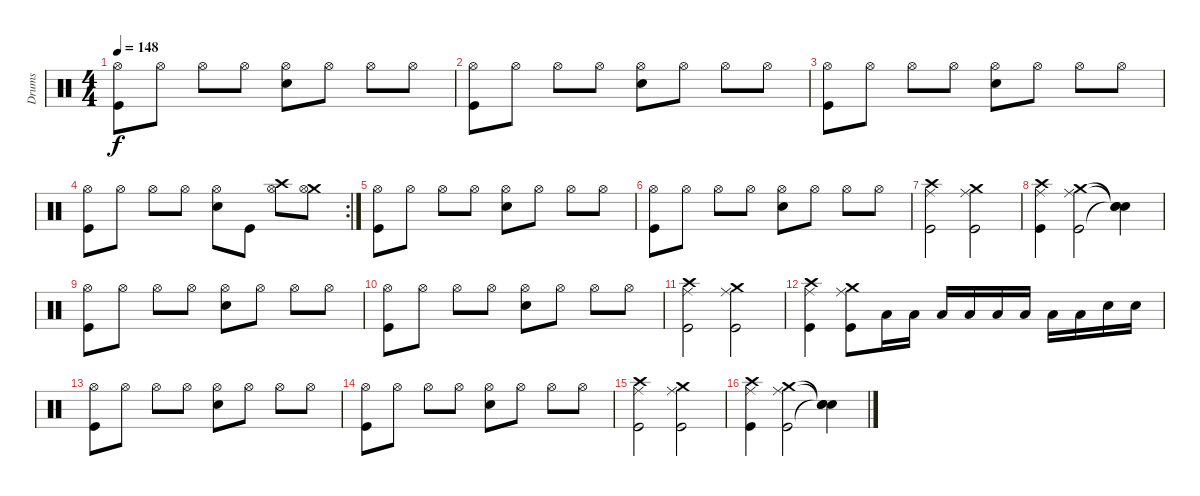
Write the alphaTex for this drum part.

\track ("Drums" "Drums") {instrument percussion}
\staff {score}
\articulation defaults
\ts (4 4)
\tempo 148
\clef neutral
\ks c
("Hi-Hat (open)" "Kick (hit)").8{dy f} "Hi-Hat (open)".8 "Hi-Hat (open)".8 "Hi-Hat (open)".8 ("Snare (hit) 2" "Hi-Hat (open)").8 "Hi-Hat (open)".8 "Hi-Hat (open)".8 "Hi-Hat (open)".8 |
("Hi-Hat (open)" "Kick (hit)").8 "Hi-Hat (open)".8 "Hi-Hat (open)".8 "Hi-Hat (open)".8 ("Snare (hit) 2" "Hi-Hat (open)").8 "Hi-Hat (open)".8 "Hi-Hat (open)".8 "Hi-Hat (open)".8 |
("Hi-Hat (open)" "Kick (hit)").8 "Hi-Hat (open)".8 "Hi-Hat (open)".8 "Hi-Hat (open)".8 ("Snare (hit) 2" "Hi-Hat (open)").8 "Hi-Hat (open)".8 "Hi-Hat (open)".8 "Hi-Hat (open)".8 |
\rc 2
("Hi-Hat (open)" "Kick (hit)").8 "Hi-Hat (open)".8 "Hi-Hat (open)".8 "Hi-Hat (open)".8 ("Snare (hit) 2" "Hi-Hat (open)").8 "Kick (hit)".8 ("Crash high (hit)" "Hi-Hat (open)").8 ("Crash medium (hit)" "Hi-Hat (open)").8 |
("Hi-Hat (open)" "Kick (hit)").8 "Hi-Hat (open)".8 "Hi-Hat (open)".8 "Hi-Hat (open)".8 ("Snare (hit) 2" "Hi-Hat (open)").8 "Hi-Hat (open)".8 "Hi-Hat (open)".8 "Hi-Hat (open)".8 |
("Hi-Hat (open)" "Kick (hit)").8 "Hi-Hat (open)".8 "Hi-Hat (open)".8 "Hi-Hat (open)".8 ("Snare (hit) 2" "Hi-Hat (open)").8 "Hi-Hat (open)".8 "Hi-Hat (open)".8 "Hi-Hat (open)".8 |
("Ride (middle)" "Crash high (hit)" "Kick (hit)").2 ("Ride (middle)" "Crash medium (hit)" "Kick (hit)").2 |
("Ride (middle)" "Crash high (hit)" "Kick (hit)").4 ("Ride (middle)" "Crash medium (hit)" "Kick (hit)").2 ("Snare (hit)"{t} "Snare (hit)"{t} "Snare (hit)"{t}).4 |
("Hi-Hat (open)" "Kick (hit)").8 "Hi-Hat (open)".8 "Hi-Hat (open)".8 "Hi-Hat (open)".8 ("Snare (hit) 2" "Hi-Hat (open)").8 "Hi-Hat (open)".8 "Hi-Hat (open)".8 "Hi-Hat (open)".8 |
("Hi-Hat (open)" "Kick (hit)").8 "Hi-Hat (open)".8 "Hi-Hat (open)".8 "Hi-Hat (open)".8 ("Snare (hit) 2" "Hi-Hat (open)").8 "Hi-Hat (open)".8 "Hi-Hat (open)".8 "Hi-Hat (open)".8 |
("Ride (middle)" "Crash high (hit)" "Kick (hit)").2 ("Ride (middle)" "Crash medium (hit)" "Kick (hit)").2 |
("Ride (middle)" "Crash high (hit)" "Kick (hit)").4 ("Ride (middle)" "Crash medium (hit)" "Kick (hit)").8 "Low Tom (hit)".16 "Low Tom (hit)".16 "Low Tom (hit)".16 "Low Tom (hit)".16 "Low Tom (hit)".16 "Low Tom (hit)".16 "Low Tom (hit)".16 "Low Tom (hit)".16 "Snare (hit) 2".16 "Snare (hit) 2".16 |
("Hi-Hat (open)" "Kick (hit)").8 "Hi-Hat (open)".8 "Hi-Hat (open)".8 "Hi-Hat (open)".8 ("Snare (hit) 2" "Hi-Hat (open)").8 "Hi-Hat (open)".8 "Hi-Hat (open)".8 "Hi-Hat (open)".8 |
("Hi-Hat (open)" "Kick (hit)").8 "Hi-Hat (open)".8 "Hi-Hat (open)".8 "Hi-Hat (open)".8 ("Snare (hit) 2" "Hi-Hat (open)").8 "Hi-Hat (open)".8 "Hi-Hat (open)".8 "Hi-Hat (open)".8 |
("Ride (middle)" "Crash high (hit)" "Kick (hit)").2 ("Ride (middle)" "Crash medium (hit)" "Kick (hit)").2 |
("Ride (middle)" "Crash high (hit)" "Kick (hit)").4 ("Ride (middle)" "Crash medium (hit)" "Kick (hit)").2 ("Snare (hit)"{t} "Snare (hit)"{t} "Snare (hit)"{t}).4
